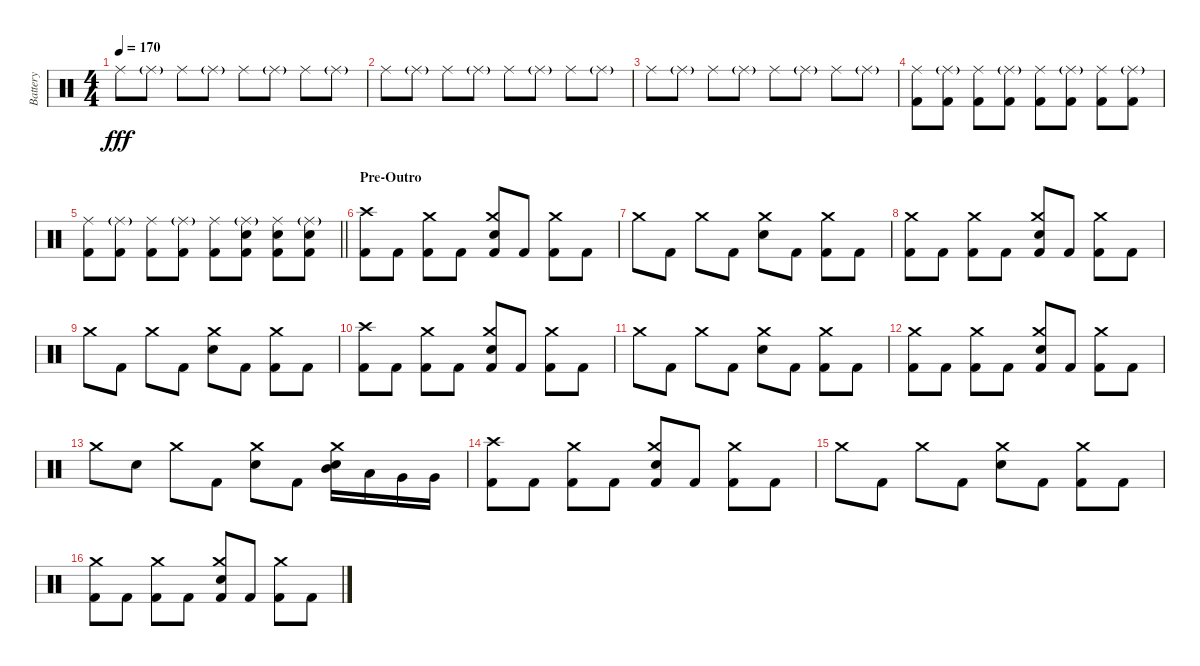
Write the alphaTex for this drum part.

\track ("Battery" "Battery") {instrument percussion}
\staff {score}
\articulation defaults
\ts (4 4)
\tempo 170
\clef neutral
\ks c "Ride (middle)".8{dy fff} "Ride (middle)"{g}.8 "Ride (middle)".8 "Ride (middle)"{g}.8 "Ride (middle)".8 "Ride (middle)"{g}.8 "Ride (middle)".8 "Ride (middle)"{g}.8
|
"Ride (middle)".8 "Ride (middle)"{g}.8 "Ride (middle)".8 "Ride (middle)"{g}.8 "Ride (middle)".8 "Ride (middle)"{g}.8 "Ride (middle)".8 "Ride (middle)"{g}.8 |
"Ride (middle)".8 "Ride (middle)"{g}.8 "Ride (middle)".8 "Ride (middle)"{g}.8 "Ride (middle)".8 "Ride (middle)"{g}.8 "Ride (middle)".8 "Ride (middle)"{g}.8 |
("Ride (middle)" "Kick (hit) 2").8 ("Ride (middle)"{g} "Kick (hit) 2").8 ("Ride (middle)" "Kick (hit) 2").8 ("Ride (middle)"{g} "Kick (hit) 2").8 ("Ride (middle)" "Kick (hit) 2").8 ("Ride (middle)"{g} "Kick (hit) 2").8 ("Ride (middle)" "Kick (hit) 2").8 ("Ride (middle)"{g} "Kick (hit) 2").8 |
\barLineRight lightlight
("Ride (middle)" "Kick (hit) 2").8 ("Ride (middle)"{g} "Kick (hit) 2").8 ("Ride (middle)" "Kick (hit) 2").8 ("Ride (middle)"{g} "Kick (hit) 2").8 ("Ride (middle)" "Kick (hit) 2").8 ("Ride (middle)"{g} "Snare (hit) 2" "Kick (hit) 2").8 ("Ride (middle)" "Snare (hit) 2" "Kick (hit) 2").8 ("Ride (middle)"{g} "Snare (hit) 2" "Kick (hit) 2").8 |
\section ("" "Pre-Outro")
("Crash high (hit)" "Kick (hit) 2").8 "Kick (hit) 2".8 ("Crash medium (hit)" "Kick (hit) 2").8 "Kick (hit) 2".8 ("Crash medium (hit)" "Electric Snare (hit)" "Kick (hit) 2").8 "Kick (hit) 2".8 ("Crash medium (hit)" "Kick (hit) 2").8 "Kick (hit) 2".8 |
"Crash medium (hit)".8 "Kick (hit) 2".8 "Crash medium (hit)".8 "Kick (hit) 2".8 ("Crash medium (hit)" "Electric Snare (hit)").8 "Kick (hit) 2".8 ("Crash medium (hit)" "Kick (hit) 2").8 "Kick (hit) 2".8 |
("Crash medium (hit)" "Kick (hit) 2").8 "Kick (hit) 2".8 ("Crash medium (hit)" "Kick (hit) 2").8 "Kick (hit) 2".8 ("Crash medium (hit)" "Electric Snare (hit)" "Kick (hit) 2").8 "Kick (hit) 2".8 ("Crash medium (hit)" "Kick (hit) 2").8 "Kick (hit) 2".8 |
"Crash medium (hit)".8 "Kick (hit) 2".8 "Crash medium (hit)".8 "Kick (hit) 2".8 ("Crash medium (hit)" "Electric Snare (hit)").8 "Kick (hit) 2".8 ("Crash medium (hit)" "Kick (hit) 2").8 "Kick (hit) 2".8 |
("Crash high (hit)" "Kick (hit) 2").8 "Kick (hit) 2".8 ("Crash medium (hit)" "Kick (hit) 2").8 "Kick (hit) 2".8 ("Crash medium (hit)" "Electric Snare (hit)" "Kick (hit) 2").8 "Kick (hit) 2".8 ("Crash medium (hit)" "Kick (hit) 2").8 "Kick (hit) 2".8 |
"Crash medium (hit)".8 "Kick (hit) 2".8 "Crash medium (hit)".8 "Kick (hit) 2".8 ("Crash medium (hit)" "Electric Snare (hit)").8 "Kick (hit) 2".8 ("Crash medium (hit)" "Kick (hit) 2").8 "Kick (hit) 2".8 |
("Crash medium (hit)" "Kick (hit) 2").8 "Kick (hit) 2".8 ("Crash medium (hit)" "Kick (hit) 2").8 "Kick (hit) 2".8 ("Crash medium (hit)" "Electric Snare (hit)" "Kick (hit) 2").8 "Kick (hit) 2".8 ("Crash medium (hit)" "Kick (hit) 2").8 "Kick (hit) 2".8 |
"Crash medium (hit)".8 "Electric Snare (hit)".8 "Crash medium (hit)".8 "Kick (hit) 2".8 ("Crash medium (hit)" "Electric Snare (hit)").8 "Kick (hit) 2".8 ("Crash medium (hit)" "Mid Tom (hit)" "Electric Snare (hit)").16 "Low Tom (hit)".16 "Very Low Tom (hit)".16 "Very Low Tom (hit)".16 |
("Crash high (hit)" "Kick (hit) 2").8 "Kick (hit) 2".8 ("Crash medium (hit)" "Kick (hit) 2").8 "Kick (hit) 2".8 ("Crash medium (hit)" "Electric Snare (hit)" "Kick (hit) 2").8 "Kick (hit) 2".8 ("Crash medium (hit)" "Kick (hit) 2").8 "Kick (hit) 2".8 |
"Crash medium (hit)".8 "Kick (hit) 2".8 "Crash medium (hit)".8 "Kick (hit) 2".8 ("Crash medium (hit)" "Electric Snare (hit)").8 "Kick (hit) 2".8 ("Crash medium (hit)" "Kick (hit) 2").8 "Kick (hit) 2".8 |
("Crash medium (hit)" "Kick (hit) 2").8 "Kick (hit) 2".8 ("Crash medium (hit)" "Kick (hit) 2").8 "Kick (hit) 2".8 ("Crash medium (hit)" "Electric Snare (hit)" "Kick (hit) 2").8 "Kick (hit) 2".8 ("Crash medium (hit)" "Kick (hit) 2").8 "Kick (hit) 2".8
